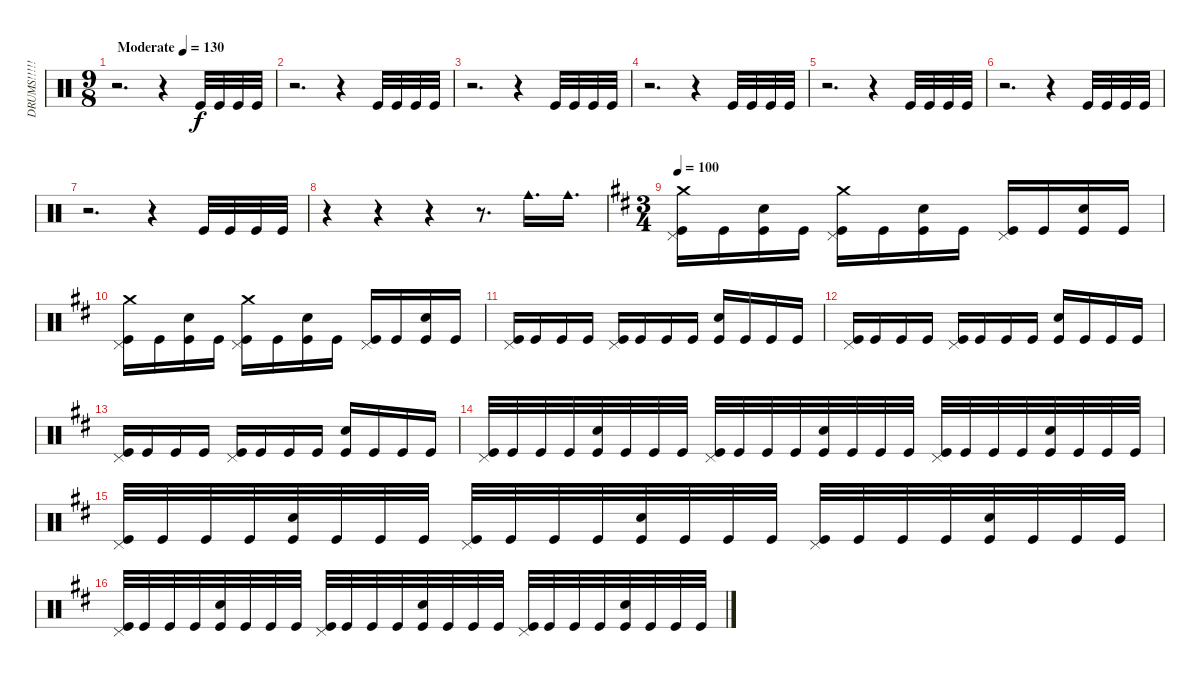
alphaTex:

\track ("DRUMS!!!!!" "DRUMS!!!!!") {instrument percussion}
\staff {score}
\articulation defaults
\ts (9 8)
\tempo (130 "Moderate")
\clef neutral
\ks c
r.2{d dy f} r.4 "Kick (hit)".32 "Kick (hit)".32 "Kick (hit)".32 "Kick (hit)".32 |
r.2{d} r.4 "Kick (hit)".32 "Kick (hit)".32 "Kick (hit)".32 "Kick (hit)".32 |
r.2{d} r.4 "Kick (hit)".32 "Kick (hit)".32 "Kick (hit)".32 "Kick (hit)".32 |
r.2{d} r.4 "Kick (hit)".32 "Kick (hit)".32 "Kick (hit)".32 "Kick (hit)".32 |
r.2{d} r.4 "Kick (hit)".32 "Kick (hit)".32 "Kick (hit)".32 "Kick (hit)".32 |
r.2{d} r.4 "Kick (hit)".32 "Kick (hit)".32 "Kick (hit)".32 "Kick (hit)".32 |
r.2{d} r.4 "Kick (hit)".32 "Kick (hit)".32 "Kick (hit)".32 "Kick (hit)".32 |
r.4 r.4 r.4 r.8{d} "Cowbell medium (hit)".16{d} "Cowbell medium (hit)".16{d} |
\ts (3 4)
\tempo 100
\ks d
("Kick (hit)" "Pedal Hi-Hat (hit)" "Crash medium (hit)").16 "Kick (hit)".16 ("Kick (hit)" "Snare (hit) 2").16 "Kick (hit)".16 ("Kick (hit)" "Pedal Hi-Hat (hit)" "Crash medium (hit)").16 "Kick (hit)".16 ("Kick (hit)" "Snare (hit) 2").16 "Kick (hit)".16 ("Kick (hit)" "Pedal Hi-Hat (hit)").16 "Kick (hit)".16 ("Kick (hit)" "Snare (hit) 2").16 "Kick (hit)".16 |
("Kick (hit)" "Pedal Hi-Hat (hit)" "Crash medium (hit)").16 "Kick (hit)".16 ("Kick (hit)" "Snare (hit) 2").16 "Kick (hit)".16 ("Kick (hit)" "Pedal Hi-Hat (hit)" "Crash medium (hit)").16 "Kick (hit)".16 ("Kick (hit)" "Snare (hit) 2").16 "Kick (hit)".16 ("Kick (hit)" "Pedal Hi-Hat (hit)").16 "Kick (hit)".16 ("Kick (hit)" "Snare (hit) 2").16 "Kick (hit)".16 |
("Kick (hit)" "Pedal Hi-Hat (hit)").16 "Kick (hit)".16 "Kick (hit)".16 "Kick (hit)".16 ("Kick (hit)" "Pedal Hi-Hat (hit)").16 "Kick (hit)".16 "Kick (hit)".16 "Kick (hit)".16 ("Kick (hit)" "Snare (hit) 2").16 "Kick (hit)".16 "Kick (hit)".16 "Kick (hit)".16 |
("Kick (hit)" "Pedal Hi-Hat (hit)").16 "Kick (hit)".16 "Kick (hit)".16 "Kick (hit)".16 ("Kick (hit)" "Pedal Hi-Hat (hit)").16 "Kick (hit)".16 "Kick (hit)".16 "Kick (hit)".16 ("Kick (hit)" "Snare (hit) 2").16 "Kick (hit)".16 "Kick (hit)".16 "Kick (hit)".16 |
("Kick (hit)" "Pedal Hi-Hat (hit)").16 "Kick (hit)".16 "Kick (hit)".16 "Kick (hit)".16 ("Kick (hit)" "Pedal Hi-Hat (hit)").16 "Kick (hit)".16 "Kick (hit)".16 "Kick (hit)".16 ("Kick (hit)" "Snare (hit) 2").16 "Kick (hit)".16 "Kick (hit)".16 "Kick (hit)".16 |
("Kick (hit)" "Pedal Hi-Hat (hit)").32 "Kick (hit)".32 "Kick (hit)".32 "Kick (hit)".32 ("Kick (hit)" "Snare (hit) 2").32 "Kick (hit)".32 "Kick (hit)".32 "Kick (hit)".32 ("Kick (hit)" "Pedal Hi-Hat (hit)").32 "Kick (hit)".32 "Kick (hit)".32 "Kick (hit)".32 ("Kick (hit)" "Snare (hit) 2").32 "Kick (hit)".32 "Kick (hit)".32 "Kick (hit)".32 ("Kick (hit)" "Pedal Hi-Hat (hit)").32 "Kick (hit)".32 "Kick (hit)".32 "Kick (hit)".32 ("Kick (hit)" "Snare (hit) 2").32 "Kick (hit)".32 "Kick (hit)".32 "Kick (hit)".32 |
("Kick (hit)" "Pedal Hi-Hat (hit)").32 "Kick (hit)".32 "Kick (hit)".32 "Kick (hit)".32 ("Kick (hit)" "Snare (hit) 2").32 "Kick (hit)".32 "Kick (hit)".32 "Kick (hit)".32 ("Kick (hit)" "Pedal Hi-Hat (hit)").32 "Kick (hit)".32 "Kick (hit)".32 "Kick (hit)".32 ("Kick (hit)" "Snare (hit) 2").32 "Kick (hit)".32 "Kick (hit)".32 "Kick (hit)".32 ("Kick (hit)" "Pedal Hi-Hat (hit)").32 "Kick (hit)".32 "Kick (hit)".32 "Kick (hit)".32 ("Kick (hit)" "Snare (hit) 2").32 "Kick (hit)".32 "Kick (hit)".32 "Kick (hit)".32 |
("Kick (hit)" "Pedal Hi-Hat (hit)").32 "Kick (hit)".32 "Kick (hit)".32 "Kick (hit)".32 ("Kick (hit)" "Snare (hit) 2").32 "Kick (hit)".32 "Kick (hit)".32 "Kick (hit)".32 ("Kick (hit)" "Pedal Hi-Hat (hit)").32 "Kick (hit)".32 "Kick (hit)".32 "Kick (hit)".32 ("Kick (hit)" "Snare (hit) 2").32 "Kick (hit)".32 "Kick (hit)".32 "Kick (hit)".32 ("Kick (hit)" "Pedal Hi-Hat (hit)").32 "Kick (hit)".32 "Kick (hit)".32 "Kick (hit)".32 ("Kick (hit)" "Snare (hit) 2").32 "Kick (hit)".32 "Kick (hit)".32 "Kick (hit)".32
